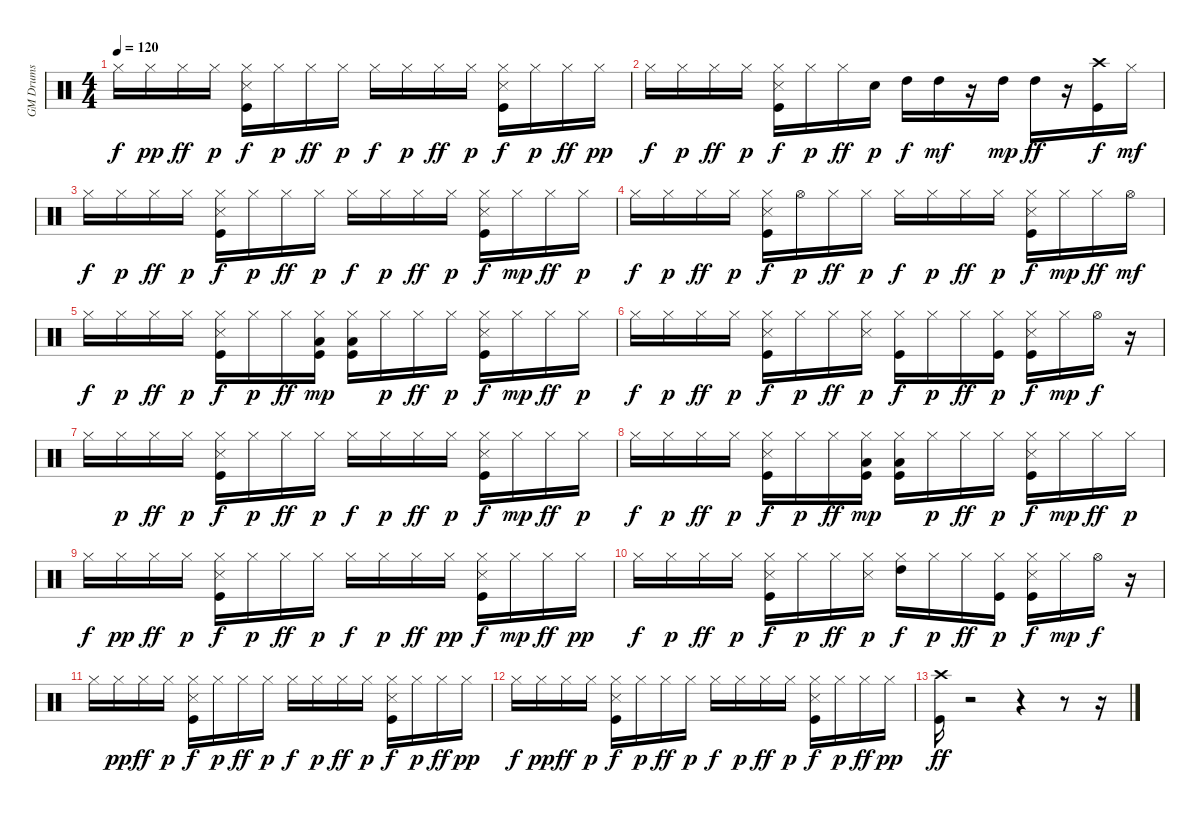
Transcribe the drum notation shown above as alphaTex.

\track ("GM Drums" "GM Drums") {instrument percussion}
\staff {score}
\articulation defaults
\ts (4 4)
\tempo 120
\clef neutral
\ks c "Hi-Hat (closed)".16{dy f} "Hi-Hat (closed)".16{dy pp} "Hi-Hat (closed)".16{dy ff} "Hi-Hat (closed)".16{dy p}
("Kick (hit)" "Snare (side stick) 3" "Hi-Hat (closed)").16{dy f} "Hi-Hat (closed)".16{dy p} "Hi-Hat (closed)".16{dy ff} "Hi-Hat (closed)".16{dy p} "Hi-Hat (closed)".16{dy f} "Hi-Hat (closed)".16{dy p} "Hi-Hat (closed)".16{dy ff} "Hi-Hat (closed)".16{dy p} ("Kick (hit)" "Snare (side stick) 3" "Hi-Hat (closed)").16{dy f} "Hi-Hat (closed)".16{dy p} "Hi-Hat (closed)".16{dy ff} "Hi-Hat (closed)".16{dy pp} |
"Hi-Hat (closed)".16{dy f} "Hi-Hat (closed)".16{dy p} "Hi-Hat (closed)".16{dy ff} "Hi-Hat (closed)".16{dy p} ("Kick (hit)" "Snare (side stick) 3" "Hi-Hat (closed)").16{dy f} "Hi-Hat (closed)".16{dy p} "Hi-Hat (closed)".16{dy ff} "Snare (hit) 2".16{dy p} "High Tom (hit)".16{dy f} "High Tom (hit)".16{dy mf} r.16 "High Tom (hit)".16{dy mp} "High Tom (hit)".16{dy ff} r.16 ("Kick (hit)" "Crash high (hit)").16{dy f} "Hi-Hat (closed)".16{dy mf} |
"Hi-Hat (closed)".16{dy f} "Hi-Hat (closed)".16{dy p} "Hi-Hat (closed)".16{dy ff} "Hi-Hat (closed)".16{dy p} ("Kick (hit)" "Snare (side stick) 3" "Hi-Hat (closed)").16{dy f} "Hi-Hat (closed)".16{dy p} "Hi-Hat (closed)".16{dy ff} "Hi-Hat (closed)".16{dy p} "Hi-Hat (closed)".16{dy f} "Hi-Hat (closed)".16{dy p} "Hi-Hat (closed)".16{dy ff} "Hi-Hat (closed)".16{dy p} ("Kick (hit)" "Snare (side stick) 3" "Hi-Hat (closed)").16{dy f} "Hi-Hat (closed)".16{dy mp} "Hi-Hat (closed)".16{dy ff} "Hi-Hat (closed)".16{dy p} |
"Hi-Hat (closed)".16{dy f} "Hi-Hat (closed)".16{dy p} "Hi-Hat (closed)".16{dy ff} "Hi-Hat (closed)".16{dy p} ("Kick (hit)" "Snare (side stick) 3" "Hi-Hat (closed)").16{dy f} "Hi-Hat (open)".16{dy p} "Hi-Hat (closed)".16{dy ff} "Hi-Hat (closed)".16{dy p} "Hi-Hat (closed)".16{dy f} "Hi-Hat (closed)".16{dy p} "Hi-Hat (closed)".16{dy ff} "Hi-Hat (closed)".16{dy p} ("Kick (hit)" "Snare (side stick) 3" "Hi-Hat (closed)").16{dy f} "Hi-Hat (closed)".16{dy mp} "Hi-Hat (closed)".16{dy ff} "Hi-Hat (open)".16{dy mf} |
"Hi-Hat (closed)".16{dy f} "Hi-Hat (closed)".16{dy p} "Hi-Hat (closed)".16{dy ff} "Hi-Hat (closed)".16{dy p} ("Kick (hit)" "Snare (side stick) 3" "Hi-Hat (closed)").16{dy f} "Hi-Hat (closed)".16{dy p} "Hi-Hat (closed)".16{dy ff} ("Kick (hit)" "Hi-Hat (closed)" "Low Tom (hit)").16{dy mp} ("Kick (hit)" "Hi-Hat (closed)" "Low Tom (hit)").16 "Hi-Hat (closed)".16{dy p} "Hi-Hat (closed)".16{dy ff} "Hi-Hat (closed)".16{dy p} ("Kick (hit)" "Snare (side stick) 3" "Hi-Hat (closed)").16{dy f} "Hi-Hat (closed)".16{dy mp} "Hi-Hat (closed)".16{dy ff} "Hi-Hat (closed)".16{dy p} |
"Hi-Hat (closed)".16{dy f} "Hi-Hat (closed)".16{dy p} "Hi-Hat (closed)".16{dy ff} "Hi-Hat (closed)".16{dy p} ("Kick (hit)" "Snare (side stick) 3" "Hi-Hat (closed)").16{dy f} "Hi-Hat (closed)".16{dy p} "Hi-Hat (closed)".16{dy ff} ("Snare (side stick) 3" "Hi-Hat (closed)").16{dy p} ("Kick (hit)" "Hi-Hat (closed)").16{dy f} "Hi-Hat (closed)".16{dy p} "Hi-Hat (closed)".16{dy ff} ("Kick (hit)" "Hi-Hat (closed)").16{dy p} ("Kick (hit)" "Snare (side stick) 3" "Hi-Hat (closed)").16{dy f} "Hi-Hat (closed)".16{dy mp} "Hi-Hat (open)".16{dy f} r.16 |
"Hi-Hat (closed)".16 "Hi-Hat (closed)".16{dy p} "Hi-Hat (closed)".16{dy ff} "Hi-Hat (closed)".16{dy p} ("Kick (hit)" "Snare (side stick) 3" "Hi-Hat (closed)").16{dy f} "Hi-Hat (closed)".16{dy p} "Hi-Hat (closed)".16{dy ff} "Hi-Hat (closed)".16{dy p} "Hi-Hat (closed)".16{dy f} "Hi-Hat (closed)".16{dy p} "Hi-Hat (closed)".16{dy ff} "Hi-Hat (closed)".16{dy p} ("Kick (hit)" "Snare (side stick) 3" "Hi-Hat (closed)").16{dy f} "Hi-Hat (closed)".16{dy mp} "Hi-Hat (closed)".16{dy ff} "Hi-Hat (closed)".16{dy p} |
"Hi-Hat (closed)".16{dy f} "Hi-Hat (closed)".16{dy p} "Hi-Hat (closed)".16{dy ff} "Hi-Hat (closed)".16{dy p} ("Kick (hit)" "Snare (side stick) 3" "Hi-Hat (closed)").16{dy f} "Hi-Hat (closed)".16{dy p} "Hi-Hat (closed)".16{dy ff} ("Kick (hit)" "Hi-Hat (closed)" "Low Tom (hit)").16{dy mp} ("Kick (hit)" "Hi-Hat (closed)" "Low Tom (hit)").16 "Hi-Hat (closed)".16{dy p} "Hi-Hat (closed)".16{dy ff} "Hi-Hat (closed)".16{dy p} ("Kick (hit)" "Snare (side stick) 3" "Hi-Hat (closed)").16{dy f} "Hi-Hat (closed)".16{dy mp} "Hi-Hat (closed)".16{dy ff} "Hi-Hat (closed)".16{dy p} |
"Hi-Hat (closed)".16{dy f} "Hi-Hat (closed)".16{dy pp} "Hi-Hat (closed)".16{dy ff} "Hi-Hat (closed)".16{dy p} ("Kick (hit)" "Snare (side stick) 3" "Hi-Hat (closed)").16{dy f} "Hi-Hat (closed)".16{dy p} "Hi-Hat (closed)".16{dy ff} "Hi-Hat (closed)".16{dy p} "Hi-Hat (closed)".16{dy f} "Hi-Hat (closed)".16{dy p} "Hi-Hat (closed)".16{dy ff} "Hi-Hat (closed)".16{dy pp} ("Kick (hit)" "Snare (side stick) 3" "Hi-Hat (closed)").16{dy f} "Hi-Hat (closed)".16{dy mp} "Hi-Hat (closed)".16{dy ff} "Hi-Hat (closed)".16{dy pp} |
"Hi-Hat (closed)".16{dy f} "Hi-Hat (closed)".16{dy p} "Hi-Hat (closed)".16{dy ff} "Hi-Hat (closed)".16{dy p} ("Kick (hit)" "Snare (side stick) 3" "Hi-Hat (closed)").16{dy f} "Hi-Hat (closed)".16{dy p} "Hi-Hat (closed)".16{dy ff} ("Snare (side stick) 3" "Hi-Hat (closed)").16{dy p} ("Hi-Hat (closed)" "High Tom (hit)").16{dy f} "Hi-Hat (closed)".16{dy p} "Hi-Hat (closed)".16{dy ff} ("Kick (hit)" "Hi-Hat (closed)").16{dy p} ("Kick (hit)" "Snare (side stick) 3" "Hi-Hat (closed)").16{dy f} "Hi-Hat (closed)".16{dy mp} "Hi-Hat (open)".16{dy f} r.16 |
"Hi-Hat (closed)".16 "Hi-Hat (closed)".16{dy pp} "Hi-Hat (closed)".16{dy ff} "Hi-Hat (closed)".16{dy p} ("Kick (hit)" "Snare (side stick) 3" "Hi-Hat (closed)").16{dy f} "Hi-Hat (closed)".16{dy p} "Hi-Hat (closed)".16{dy ff} "Hi-Hat (closed)".16{dy p} "Hi-Hat (closed)".16{dy f} "Hi-Hat (closed)".16{dy p} "Hi-Hat (closed)".16{dy ff} "Hi-Hat (closed)".16{dy p} ("Kick (hit)" "Snare (side stick) 3" "Hi-Hat (closed)").16{dy f} "Hi-Hat (closed)".16{dy p} "Hi-Hat (closed)".16{dy ff} "Hi-Hat (closed)".16{dy pp} |
"Hi-Hat (closed)".16{dy f} "Hi-Hat (closed)".16{dy pp} "Hi-Hat (closed)".16{dy ff} "Hi-Hat (closed)".16{dy p} ("Kick (hit)" "Snare (side stick) 3" "Hi-Hat (closed)").16{dy f} "Hi-Hat (closed)".16{dy p} "Hi-Hat (closed)".16{dy ff} "Hi-Hat (closed)".16{dy p} "Hi-Hat (closed)".16{dy f} "Hi-Hat (closed)".16{dy p} "Hi-Hat (closed)".16{dy ff} "Hi-Hat (closed)".16{dy p} ("Kick (hit)" "Snare (side stick) 3" "Hi-Hat (closed)").16{dy f} "Hi-Hat (closed)".16{dy p} "Hi-Hat (closed)".16{dy ff} "Hi-Hat (closed)".16{dy pp} |
("Kick (hit)" "Crash high (hit)").16{dy ff} r.2 r.4 r.8 r.16
